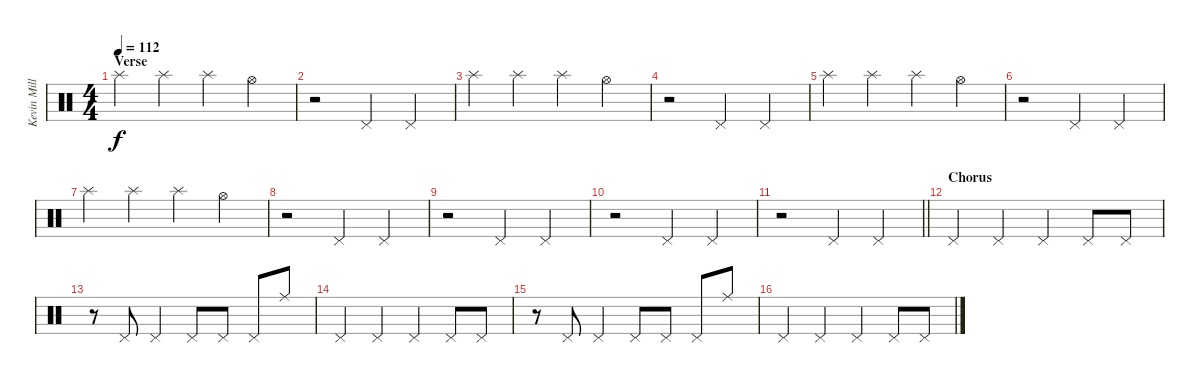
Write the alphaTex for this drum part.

\track ("Kevin Miller (Drums)" "Kevin Mill") {instrument percussion}
\staff {score}
\articulation defaults
\ts (4 4)
\section ("" "Verse")
\tempo 112
\clef neutral
\ks c "Splash (hit)".4{dy f} "Splash (hit)".4 "Splash (hit)".4 "Hi-Hat (open)".4
|
r.2 "Pedal Hi-Hat (hit)".4 "Pedal Hi-Hat (hit)".4 |
"Splash (hit)".4 "Splash (hit)".4 "Splash (hit)".4 "Hi-Hat (open)".4 |
r.2 "Pedal Hi-Hat (hit)".4 "Pedal Hi-Hat (hit)".4 |
"Splash (hit)".4 "Splash (hit)".4 "Splash (hit)".4 "Hi-Hat (open)".4 |
r.2 "Pedal Hi-Hat (hit)".4 "Pedal Hi-Hat (hit)".4 |
"Splash (hit)".4 "Splash (hit)".4 "Splash (hit)".4 "Hi-Hat (open)".4 |
r.2 "Pedal Hi-Hat (hit)".4 "Pedal Hi-Hat (hit)".4 |
r.2 "Pedal Hi-Hat (hit)".4 "Pedal Hi-Hat (hit)".4 |
r.2 "Pedal Hi-Hat (hit)".4 "Pedal Hi-Hat (hit)".4 |
\barLineRight lightlight
r.2 "Pedal Hi-Hat (hit)".4 "Pedal Hi-Hat (hit)".4 |
\section ("" "Chorus")
"Pedal Hi-Hat (hit)".4 "Pedal Hi-Hat (hit)".4 "Pedal Hi-Hat (hit)".4 "Pedal Hi-Hat (hit)".8 "Pedal Hi-Hat (hit)".8 |
r.8 "Pedal Hi-Hat (hit)".8 "Pedal Hi-Hat (hit)".4 "Pedal Hi-Hat (hit)".8 "Pedal Hi-Hat (hit)".8 "Pedal Hi-Hat (hit)".8 "Ride (middle)".8 |
"Pedal Hi-Hat (hit)".4 "Pedal Hi-Hat (hit)".4 "Pedal Hi-Hat (hit)".4 "Pedal Hi-Hat (hit)".8 "Pedal Hi-Hat (hit)".8 |
r.8 "Pedal Hi-Hat (hit)".8 "Pedal Hi-Hat (hit)".4 "Pedal Hi-Hat (hit)".8 "Pedal Hi-Hat (hit)".8 "Pedal Hi-Hat (hit)".8 "Ride (middle)".8 |
"Pedal Hi-Hat (hit)".4 "Pedal Hi-Hat (hit)".4 "Pedal Hi-Hat (hit)".4 "Pedal Hi-Hat (hit)".8 "Pedal Hi-Hat (hit)".8
